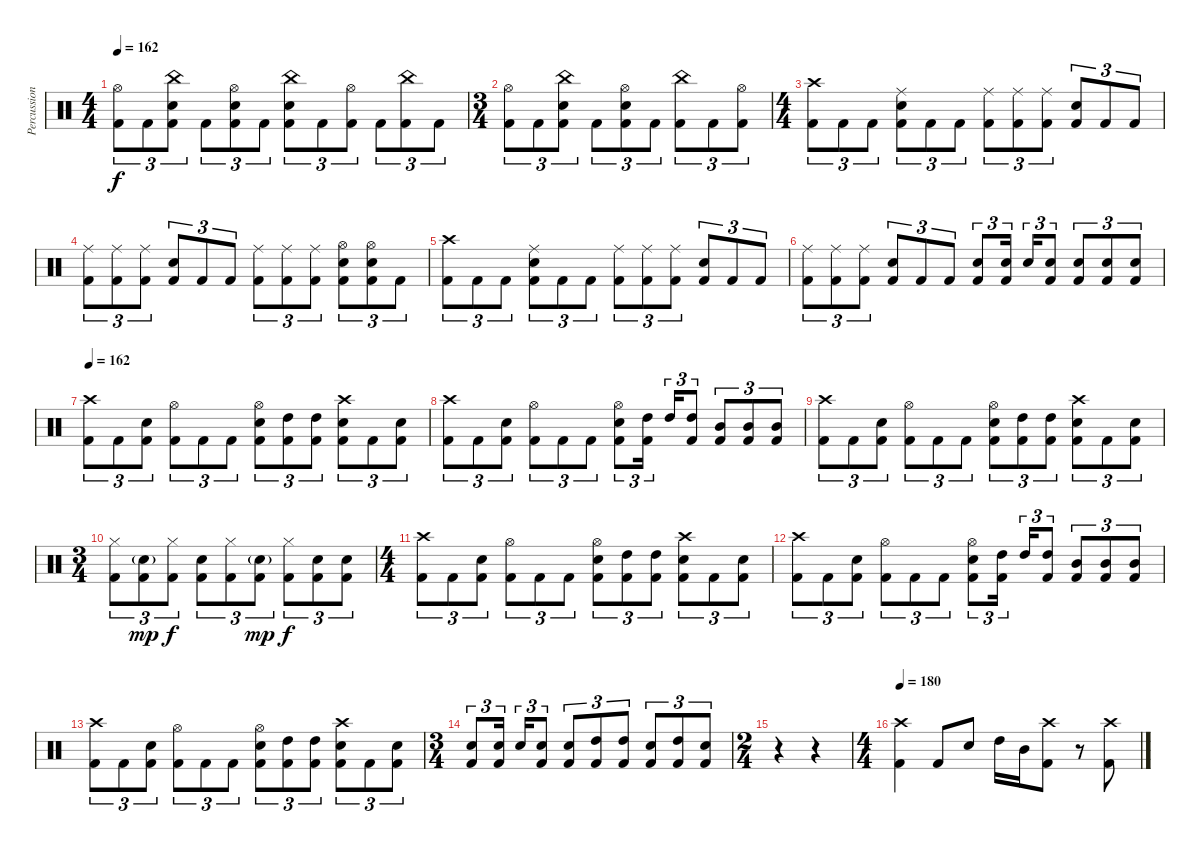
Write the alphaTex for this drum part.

\track ("Percussion" "Percussion") {instrument percussion}
\staff {score}
\articulation defaults
\ts (4 4)
\tempo 162
\clef neutral
\ks c
("Hi-Hat (open)" "Kick (hit) 2").8{tu (3 2) dy f} "Kick (hit) 2".8{tu (3 2)} ("China (hit)" "Electric Snare (hit)" "Kick (hit) 2").8{tu (3 2)} "Kick (hit) 2".8{tu (3 2)} ("Hi-Hat (open)" "Electric Snare (hit)" "Kick (hit) 2").8{tu (3 2)} "Kick (hit) 2".8{tu (3 2)} ("China (hit)" "Electric Snare (hit)" "Kick (hit) 2").8{tu (3 2)} "Kick (hit) 2".8{tu (3 2)} ("Hi-Hat (open)" "Kick (hit) 2").8{tu (3 2)} "Kick (hit) 2".8{tu (3 2)} ("China (hit)" "Kick (hit) 2").8{tu (3 2)} "Kick (hit) 2".8{tu (3 2)} |
\ts (3 4)
("Hi-Hat (open)" "Kick (hit) 2").8{tu (3 2)} "Kick (hit) 2".8{tu (3 2)} ("China (hit)" "Electric Snare (hit)" "Kick (hit) 2").8{tu (3 2)} "Kick (hit) 2".8{tu (3 2)} ("Hi-Hat (open)" "Electric Snare (hit)" "Kick (hit) 2").8{tu (3 2)} "Kick (hit) 2".8{tu (3 2)} ("China (hit)" "Kick (hit) 2").8{tu (3 2)} "Kick (hit) 2".8{tu (3 2)} ("Hi-Hat (open)" "Kick (hit) 2").8{tu (3 2)} |
\ts (4 4)
("Crash high (hit)" "Kick (hit) 2").8{tu (3 2)} "Kick (hit) 2".8{tu (3 2)} "Kick (hit) 2".8{tu (3 2)} ("Ride (middle)" "Electric Snare (hit)" "Kick (hit) 2").8{tu (3 2)} "Kick (hit) 2".8{tu (3 2)} "Kick (hit) 2".8{tu (3 2)} ("Ride (middle)" "Kick (hit) 2").8{tu (3 2)} ("Ride (middle)" "Kick (hit) 2").8{tu (3 2)} ("Ride (middle)" "Kick (hit) 2").8{tu (3 2)} ("Electric Snare (hit)" "Kick (hit) 2").8{tu (3 2)} "Kick (hit) 2".8{tu (3 2)} "Kick (hit) 2".8{tu (3 2)} |
("Ride (middle)" "Kick (hit) 2").8{tu (3 2)} ("Ride (middle)" "Kick (hit) 2").8{tu (3 2)} ("Ride (middle)" "Kick (hit) 2").8{tu (3 2)} ("Electric Snare (hit)" "Kick (hit) 2").8{tu (3 2)} "Kick (hit) 2".8{tu (3 2)} "Kick (hit) 2".8{tu (3 2)} ("Ride (middle)" "Kick (hit) 2").8{tu (3 2)} ("Ride (middle)" "Kick (hit) 2").8{tu (3 2)} ("Ride (middle)" "Kick (hit) 2").8{tu (3 2)} ("Hi-Hat (open)" "Electric Snare (hit)" "Kick (hit) 2").8{tu (3 2)} ("Hi-Hat (open)" "Electric Snare (hit)" "Kick (hit) 2").8{tu (3 2)} "Kick (hit) 2".8{tu (3 2)} |
("Crash high (hit)" "Kick (hit) 2").8{tu (3 2)} "Kick (hit) 2".8{tu (3 2)} "Kick (hit) 2".8{tu (3 2)} ("Ride (middle)" "Electric Snare (hit)" "Kick (hit) 2").8{tu (3 2)} "Kick (hit) 2".8{tu (3 2)} "Kick (hit) 2".8{tu (3 2)} ("Ride (middle)" "Kick (hit) 2").8{tu (3 2)} ("Ride (middle)" "Kick (hit) 2").8{tu (3 2)} ("Ride (middle)" "Kick (hit) 2").8{tu (3 2)} ("Electric Snare (hit)" "Kick (hit) 2").8{tu (3 2)} "Kick (hit) 2".8{tu (3 2)} "Kick (hit) 2".8{tu (3 2)} |
("Ride (middle)" "Kick (hit) 2").8{tu (3 2)} ("Ride (middle)" "Kick (hit) 2").8{tu (3 2)} ("Ride (middle)" "Kick (hit) 2").8{tu (3 2)} ("Electric Snare (hit)" "Kick (hit) 2").8{tu (3 2)} "Kick (hit) 2".8{tu (3 2)} "Kick (hit) 2".8{tu (3 2)} ("Electric Snare (hit)" "Kick (hit) 2").8{tu (3 2)} ("Electric Snare (hit)" "Kick (hit) 2").16{tu (3 2)} "Electric Snare (hit)".16{tu (3 2)} ("Electric Snare (hit)" "Kick (hit) 2").8{tu (3 2)} ("Electric Snare (hit)" "Kick (hit) 2").8{tu (3 2)} ("Electric Snare (hit)" "Kick (hit) 2").8{tu (3 2)} ("Electric Snare (hit)" "Kick (hit) 2").8{tu (3 2)} |
\tempo 162
("Crash high (hit)" "Kick (hit) 2").8{tu (3 2)} "Kick (hit) 2".8{tu (3 2)} ("Electric Snare (hit)" "Kick (hit) 2").8{tu (3 2)} ("Hi-Hat (open)" "Kick (hit) 2").8{tu (3 2)} "Kick (hit) 2".8{tu (3 2)} "Kick (hit) 2".8{tu (3 2)} ("Hi-Hat (open)" "Electric Snare (hit)" "Kick (hit) 2").8{tu (3 2)} ("High Tom (hit)" "Kick (hit) 2").8{tu (3 2)} ("High Tom (hit)" "Kick (hit) 2").8{tu (3 2)} ("Crash high (hit)" "Electric Snare (hit)" "Kick (hit) 2").8{tu (3 2)} "Kick (hit) 2".8{tu (3 2)} ("Electric Snare (hit)" "Kick (hit) 2").8{tu (3 2)} |
("Crash high (hit)" "Kick (hit) 2").8{tu (3 2)} "Kick (hit) 2".8{tu (3 2)} ("Electric Snare (hit)" "Kick (hit) 2").8{tu (3 2)} ("Hi-Hat (open)" "Kick (hit) 2").8{tu (3 2)} "Kick (hit) 2".8{tu (3 2)} "Kick (hit) 2".8{tu (3 2)} ("Hi-Hat (open)" "Electric Snare (hit)" "Kick (hit) 2").8{tu (3 2)} ("High Tom (hit)" "Kick (hit) 2").16{tu (3 2)} "High Tom (hit)".16{tu (3 2)} ("High Tom (hit)" "Kick (hit) 2").8{tu (3 2)} ("Mid Tom (hit)" "Kick (hit) 2").8{tu (3 2)} ("Mid Tom (hit)" "Kick (hit) 2").8{tu (3 2)} ("Mid Tom (hit)" "Kick (hit) 2").8{tu (3 2)} |
("Crash high (hit)" "Kick (hit) 2").8{tu (3 2)} "Kick (hit) 2".8{tu (3 2)} ("Electric Snare (hit)" "Kick (hit) 2").8{tu (3 2)} ("Hi-Hat (open)" "Kick (hit) 2").8{tu (3 2)} "Kick (hit) 2".8{tu (3 2)} "Kick (hit) 2".8{tu (3 2)} ("Hi-Hat (open)" "Electric Snare (hit)" "Kick (hit) 2").8{tu (3 2)} ("High Tom (hit)" "Kick (hit) 2").8{tu (3 2)} ("High Tom (hit)" "Kick (hit) 2").8{tu (3 2)} ("Crash high (hit)" "Electric Snare (hit)" "Kick (hit) 2").8{tu (3 2)} "Kick (hit) 2".8{tu (3 2)} ("Electric Snare (hit)" "Kick (hit) 2").8{tu (3 2)} |
\ts (3 4)
("Hi-Hat (closed)" "Kick (hit) 2").8{tu (3 2)} ("Electric Snare (hit)"{g} "Kick (hit) 2").8{tu (3 2) dy mp} ("Hi-Hat (closed)" "Kick (hit) 2").8{tu (3 2) dy f} ("Electric Snare (hit)" "Kick (hit) 2").8{tu (3 2)} ("Hi-Hat (closed)" "Kick (hit) 2").8{tu (3 2)} ("Electric Snare (hit)"{g} "Kick (hit) 2").8{tu (3 2) dy mp} ("Hi-Hat (closed)" "Kick (hit) 2").8{tu (3 2) dy f} ("Electric Snare (hit)" "Kick (hit) 2").8{tu (3 2)} ("Electric Snare (hit)" "Kick (hit) 2").8{tu (3 2)} |
\ts (4 4)
("Crash high (hit)" "Kick (hit) 2").8{tu (3 2)} "Kick (hit) 2".8{tu (3 2)} ("Electric Snare (hit)" "Kick (hit) 2").8{tu (3 2)} ("Hi-Hat (open)" "Kick (hit) 2").8{tu (3 2)} "Kick (hit) 2".8{tu (3 2)} "Kick (hit) 2".8{tu (3 2)} ("Hi-Hat (open)" "Electric Snare (hit)" "Kick (hit) 2").8{tu (3 2)} ("High Tom (hit)" "Kick (hit) 2").8{tu (3 2)} ("High Tom (hit)" "Kick (hit) 2").8{tu (3 2)} ("Crash high (hit)" "Electric Snare (hit)" "Kick (hit) 2").8{tu (3 2)} "Kick (hit) 2".8{tu (3 2)} ("Electric Snare (hit)" "Kick (hit) 2").8{tu (3 2)} |
("Crash high (hit)" "Kick (hit) 2").8{tu (3 2)} "Kick (hit) 2".8{tu (3 2)} ("Electric Snare (hit)" "Kick (hit) 2").8{tu (3 2)} ("Hi-Hat (open)" "Kick (hit) 2").8{tu (3 2)} "Kick (hit) 2".8{tu (3 2)} "Kick (hit) 2".8{tu (3 2)} ("Hi-Hat (open)" "Electric Snare (hit)" "Kick (hit) 2").8{tu (3 2)} ("High Tom (hit)" "Kick (hit) 2").16{tu (3 2)} "High Tom (hit)".16{tu (3 2)} ("High Tom (hit)" "Kick (hit) 2").8{tu (3 2)} ("Mid Tom (hit)" "Kick (hit) 2").8{tu (3 2)} ("Mid Tom (hit)" "Kick (hit) 2").8{tu (3 2)} ("Mid Tom (hit)" "Kick (hit) 2").8{tu (3 2)} |
("Crash high (hit)" "Kick (hit) 2").8{tu (3 2)} "Kick (hit) 2".8{tu (3 2)} ("Electric Snare (hit)" "Kick (hit) 2").8{tu (3 2)} ("Hi-Hat (open)" "Kick (hit) 2").8{tu (3 2)} "Kick (hit) 2".8{tu (3 2)} "Kick (hit) 2".8{tu (3 2)} ("Hi-Hat (open)" "Electric Snare (hit)" "Kick (hit) 2").8{tu (3 2)} ("High Tom (hit)" "Kick (hit) 2").8{tu (3 2)} ("High Tom (hit)" "Kick (hit) 2").8{tu (3 2)} ("Crash high (hit)" "Electric Snare (hit)" "Kick (hit) 2").8{tu (3 2)} "Kick (hit) 2".8{tu (3 2)} ("Electric Snare (hit)" "Kick (hit) 2").8{tu (3 2)} |
\ts (3 4)
("Electric Snare (hit)" "Kick (hit) 2").8{tu (3 2)} ("Electric Snare (hit)" "Kick (hit) 2").16{tu (3 2)} "Electric Snare (hit)".16{tu (3 2)} ("Electric Snare (hit)" "Kick (hit) 2").8{tu (3 2)} ("Electric Snare (hit)" "Kick (hit) 2").8{tu (3 2)} ("High Tom (hit)" "Kick (hit) 2").8{tu (3 2)} ("High Tom (hit)" "Kick (hit) 2").8{tu (3 2)} ("Electric Snare (hit)" "Kick (hit) 2").8{tu (3 2)} ("High Tom (hit)" "Kick (hit) 2").8{tu (3 2)} ("Electric Snare (hit)" "Kick (hit) 2").8{tu (3 2)} |
\ts (2 4)
r.4 r.4 |
\ts (4 4)
\tempo 180
("Crash high (hit)" "Kick (hit) 2").4 "Kick (hit) 2".8 "Electric Snare (hit)".8 "High Tom (hit)".16 "Mid Tom (hit)".16 ("Crash high (hit)" "Kick (hit) 2").8 r.8 ("Crash high (hit)" "Kick (hit) 2").8
